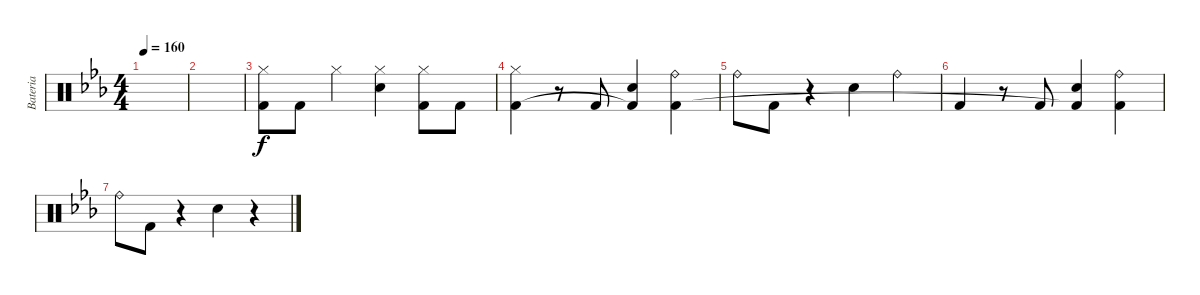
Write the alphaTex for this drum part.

\track ("Bateria" "Bateria") {instrument percussion}
\staff {score}
\articulation defaults
\ts (4 4)
\tempo 160
\clef neutral
\ks eb
|
|
("Hi-Hat (closed)" "Kick (hit) 2").8 "Kick (hit) 2".8 "Hi-Hat (closed)".4 ("Electric Snare (hit)" "Hi-Hat (closed)").4 ("Hi-Hat (closed)" "Kick (hit) 2").8 "Kick (hit) 2".8 |
("Hi-Hat (closed)" "Kick (hit) 2").4 r.8 "Kick (hit) 2".8 ("Electric Snare (hit)" "Kick (hit) 2"{t}).4 ("Ride (bell)" "Kick (hit) 2").4 |
"Ride (bell)".8 "Kick (hit) 2".8 r.4 "Electric Snare (hit)".4 "Ride (bell)".4 |
"Kick (hit) 2".4 r.8 "Kick (hit) 2".8 ("Electric Snare (hit)" "Kick (hit) 2"{t}).4 ("Ride (bell)" "Kick (hit) 2").4 |
"Ride (bell)".8 "Kick (hit) 2".8 r.4 "Electric Snare (hit)".4 r.4
